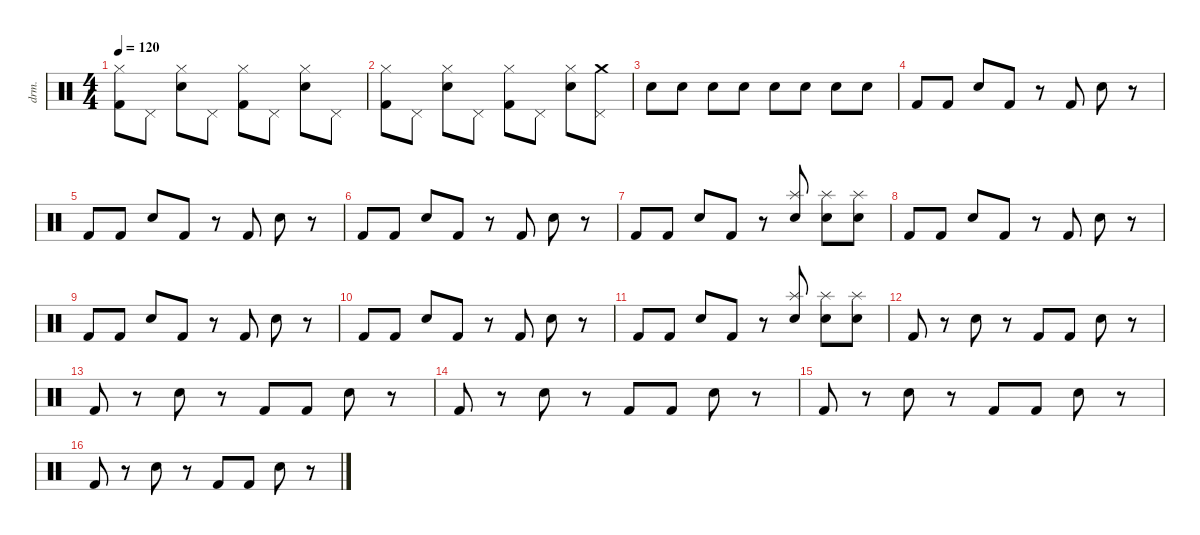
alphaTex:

\defaultSystemsLayout 4
\hideDynamics
\bracketExtendMode nobrackets
\otherSystemsTrackNameOrientation horizontal
\track ("Percussion" "drm.") {instrument percussion}
\staff {score}
\articulation defaults
\ts (4 4)
\tempo 120
\clef neutral
\ks c
("Kick (hit) 2" "Hi-Hat (closed)").8{dy f beam Down} "Pedal Hi-Hat (hit)".8{beam Down} ("Snare (hit) 2" "Hi-Hat (closed)").8{beam Down} "Pedal Hi-Hat (hit)".8{beam Down} ("Kick (hit) 2" "Hi-Hat (closed)").8{beam Down} "Pedal Hi-Hat (hit)".8{beam Down} ("Snare (hit) 2" "Hi-Hat (closed)").8{beam Down} "Pedal Hi-Hat (hit)".8{beam Down} |
("Kick (hit) 2" "Hi-Hat (closed)").8{beam Down} "Pedal Hi-Hat (hit)".8{beam Down} ("Snare (hit) 2" "Hi-Hat (closed)").8{beam Down} "Pedal Hi-Hat (hit)".8{beam Down} ("Kick (hit) 2" "Hi-Hat (closed)").8{beam Down} "Pedal Hi-Hat (hit)".8{beam Down} ("Snare (hit) 2" "Hi-Hat (closed)").8{beam Down} ("Pedal Hi-Hat (hit)" "Crash medium (hit)").8{beam Down} |
"Snare (hit) 2".8{beam Down} "Snare (hit) 2".8{beam Down} "Snare (hit) 2".8{beam Down} "Snare (hit) 2".8{beam Down} "Snare (hit) 2".8{beam Down} "Snare (hit) 2".8{beam Down} "Snare (hit) 2".8{beam Down} "Snare (hit) 2".8{beam Down} |
"Kick (hit) 2".8{beam Up} "Kick (hit) 2".8{beam Up} "Snare (hit) 2".8{beam Up} "Kick (hit) 2".8{beam Up} r.8{beam Up} "Kick (hit) 2".8{beam Up} "Snare (hit) 2".8{beam Down} r.8{beam Down} |
"Kick (hit) 2".8{beam Up} "Kick (hit) 2".8{beam Up} "Snare (hit) 2".8{beam Up} "Kick (hit) 2".8{beam Up} r.8{beam Up} "Kick (hit) 2".8{beam Up} "Snare (hit) 2".8{beam Down} r.8{beam Down} |
"Kick (hit) 2".8{beam Up} "Kick (hit) 2".8{beam Up} "Snare (hit) 2".8{beam Up} "Kick (hit) 2".8{beam Up} r.8{beam Up} "Kick (hit) 2".8{beam Up} "Snare (hit) 2".8{beam Down} r.8{beam Down} |
"Kick (hit) 2".8{beam Up} "Kick (hit) 2".8{beam Up} "Snare (hit) 2".8{beam Up} "Kick (hit) 2".8{beam Up} r.8{beam Up} ("Snare (hit) 2" "Splash (hit)").8{beam Down} ("Snare (hit) 2" "Splash (hit)").8{beam Down} ("Snare (hit) 2" "Splash (hit)").8{beam Down} |
"Kick (hit) 2".8{beam Up} "Kick (hit) 2".8{beam Up} "Snare (hit) 2".8{beam Up} "Kick (hit) 2".8{beam Up} r.8{beam Up} "Kick (hit) 2".8{beam Up} "Snare (hit) 2".8{beam Down} r.8{beam Down} |
"Kick (hit) 2".8{beam Up} "Kick (hit) 2".8{beam Up} "Snare (hit) 2".8{beam Up} "Kick (hit) 2".8{beam Up} r.8{beam Up} "Kick (hit) 2".8{beam Up} "Snare (hit) 2".8{beam Down} r.8{beam Down} |
"Kick (hit) 2".8{beam Up} "Kick (hit) 2".8{beam Up} "Snare (hit) 2".8{beam Up} "Kick (hit) 2".8{beam Up} r.8{beam Up} "Kick (hit) 2".8{beam Up} "Snare (hit) 2".8{beam Down} r.8{beam Down} |
"Kick (hit) 2".8{beam Up} "Kick (hit) 2".8{beam Up} "Snare (hit) 2".8{beam Up} "Kick (hit) 2".8{beam Up} r.8{beam Up} ("Snare (hit) 2" "Splash (hit)").8{beam Down} ("Snare (hit) 2" "Splash (hit)").8{beam Down} ("Snare (hit) 2" "Splash (hit)").8{beam Down} |
"Kick (hit) 2".8{beam Up} r.8{beam Up} "Snare (hit) 2".8{beam Down} r.8{beam Down} "Kick (hit) 2".8{beam Up} "Kick (hit) 2".8{beam Up} "Snare (hit) 2".8{beam Down} r.8{beam Down} |
"Kick (hit) 2".8{beam Up} r.8{beam Up} "Snare (hit) 2".8{beam Down} r.8{beam Down} "Kick (hit) 2".8{beam Up} "Kick (hit) 2".8{beam Up} "Snare (hit) 2".8{beam Down} r.8{beam Down} |
"Kick (hit) 2".8{beam Up} r.8{beam Up} "Snare (hit) 2".8{beam Down} r.8{beam Down} "Kick (hit) 2".8{beam Up} "Kick (hit) 2".8{beam Up} "Snare (hit) 2".8{beam Down} r.8{beam Down} |
"Kick (hit) 2".8{beam Up} r.8{beam Up} "Snare (hit) 2".8{beam Down} r.8{beam Down} "Kick (hit) 2".8{beam Up} "Kick (hit) 2".8{beam Up} "Snare (hit) 2".8{beam Down} r.8{beam Down} |
"Kick (hit) 2".8{beam Up} r.8{beam Up} "Snare (hit) 2".8{beam Down} r.8{beam Down} "Kick (hit) 2".8{beam Up} "Kick (hit) 2".8{beam Up} "Snare (hit) 2".8{beam Down} r.8{beam Down}
